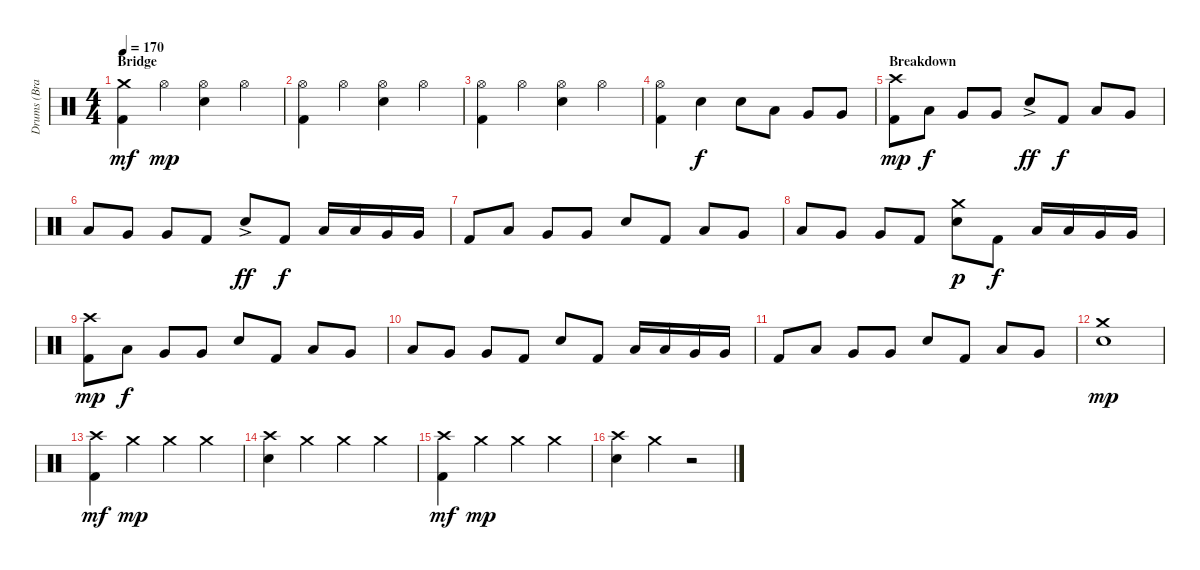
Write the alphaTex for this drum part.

\track ("Drums (Brandon Saller)" "Drums (Bra") {instrument percussion}
\staff {score}
\articulation defaults
\ts (4 4)
\section ("" "Bridge")
\tempo 170
\clef neutral
\ks c
("Crash medium (hit)" "Kick (hit) 2").4{dy mf} "Hi-Hat (open)".4{dy mp} ("Hi-Hat (open)" "Electric Snare (hit)").4 "Hi-Hat (open)".4 |
("Hi-Hat (open)" "Kick (hit) 2").4 "Hi-Hat (open)".4 ("Hi-Hat (open)" "Electric Snare (hit)").4 "Hi-Hat (open)".4 |
("Hi-Hat (open)" "Kick (hit) 2").4 "Hi-Hat (open)".4 ("Hi-Hat (open)" "Electric Snare (hit)").4 "Hi-Hat (open)".4 |
("Hi-Hat (open)" "Kick (hit) 2").4 "Electric Snare (hit)".4{dy f} "Electric Snare (hit)".8 "Low Tom (hit)".8 "Very Low Tom (hit)".8 "Very Low Tom (hit)".8 |
\section ("" "Breakdown")
("Crash high (hit)" "Kick (hit) 2").8{dy mp} "Low Tom (hit)".8{dy f} "Very Low Tom (hit)".8 "Very Low Tom (hit)".8 "Electric Snare (hit)"{ac}.8{dy ff} "Kick (hit) 2".8{dy f} "Low Tom (hit)".8 "Very Low Tom (hit)".8 |
"Low Tom (hit)".8 "Very Low Tom (hit)".8 "Very Low Tom (hit)".8 "Kick (hit) 2".8 "Electric Snare (hit)"{ac}.8{dy ff} "Kick (hit) 2".8{dy f} "Low Tom (hit)".16 "Low Tom (hit)".16 "Very Low Tom (hit)".16 "Very Low Tom (hit)".16 |
"Kick (hit) 2".8 "Low Tom (hit)".8 "Very Low Tom (hit)".8 "Very Low Tom (hit)".8 "Electric Snare (hit)".8 "Kick (hit) 2".8 "Low Tom (hit)".8 "Very Low Tom (hit)".8 |
"Low Tom (hit)".8 "Very Low Tom (hit)".8 "Very Low Tom (hit)".8 "Kick (hit) 2".8 ("Crash medium (hit)" "Electric Snare (hit)").8{dy p} "Kick (hit) 2".8{dy f} "Low Tom (hit)".16 "Low Tom (hit)".16 "Very Low Tom (hit)".16 "Very Low Tom (hit)".16 |
("Crash high (hit)" "Kick (hit) 2").8{dy mp} "Low Tom (hit)".8{dy f} "Very Low Tom (hit)".8 "Very Low Tom (hit)".8 "Electric Snare (hit)".8 "Kick (hit) 2".8 "Low Tom (hit)".8 "Very Low Tom (hit)".8 |
"Low Tom (hit)".8 "Very Low Tom (hit)".8 "Very Low Tom (hit)".8 "Kick (hit) 2".8 "Electric Snare (hit)".8 "Kick (hit) 2".8 "Low Tom (hit)".16 "Low Tom (hit)".16 "Very Low Tom (hit)".16 "Very Low Tom (hit)".16 |
"Kick (hit) 2".8 "Low Tom (hit)".8 "Very Low Tom (hit)".8 "Very Low Tom (hit)".8 "Electric Snare (hit)".8 "Kick (hit) 2".8 "Low Tom (hit)".8 "Very Low Tom (hit)".8 |
("Crash medium (hit)" "Electric Snare (hit)").1{dy mp} |
("Crash high (hit)" "Kick (hit) 2").4{dy mf} "Crash medium (hit)".4{dy mp} "Crash medium (hit)".4 "Crash medium (hit)".4 |
("Crash high (hit)" "Electric Snare (hit)").4 "Crash medium (hit)".4 "Crash medium (hit)".4 "Crash medium (hit)".4 |
("Crash high (hit)" "Kick (hit) 2").4{dy mf} "Crash medium (hit)".4{dy mp} "Crash medium (hit)".4 "Crash medium (hit)".4 |
("Crash high (hit)" "Electric Snare (hit)").4 "Crash medium (hit)".4 r.2
